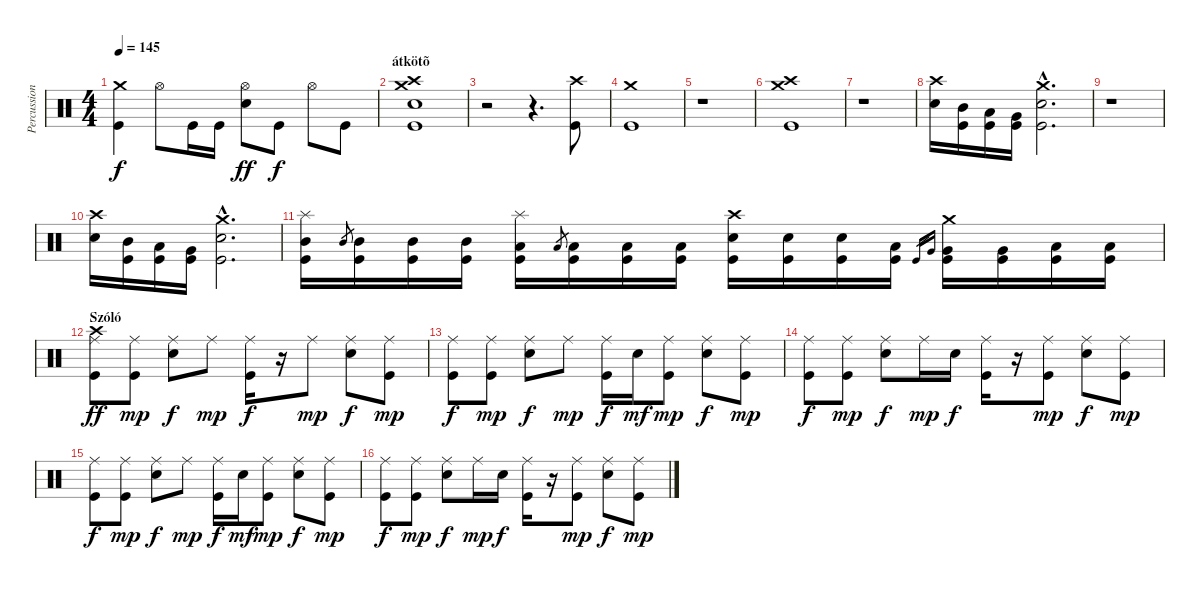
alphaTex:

\track ("Percussion" "Percussion") {instrument percussion}
\staff {score}
\articulation defaults
\ts (4 4)
\tempo 145
\clef neutral
\ks c
("Crash medium (hit)" "Kick (hit)").4{dy f} "Hi-Hat (open)".8 "Kick (hit)".16 "Kick (hit)".16 ("Hi-Hat (open)" "Snare (hit) 2").8{dy ff} "Kick (hit)".8{dy f} "Hi-Hat (open)".8 "Kick (hit)".8 |
\section ("" "átkötõ")
("Crash high (hit)" "Crash medium (hit)" "Kick (hit)" "Snare (hit) 2").1 |
r.2 r.4{d} ("Crash high (hit)" "Kick (hit)").8 |
("Crash medium (hit)" "Kick (hit)").1 |
r.1 |
("Crash medium (hit)" "Crash high (hit)" "Kick (hit)").1 |
r.1 |
("Crash high (hit)" "Snare (hit) 2").16 ("Kick (hit)" "Mid Tom (hit)").16 ("Kick (hit)" "Low Tom (hit)").16 ("Kick (hit)" "Very Low Tom (hit)").16 ("Crash medium (hit)"{hac} "Kick (hit)"{hac} "Snare (hit) 2"{hac}).2{d} |
r.1 |
("Crash high (hit)" "Snare (hit) 2").16 ("Kick (hit)" "Mid Tom (hit)").16 ("Kick (hit)" "Low Tom (hit)").16 ("Kick (hit)" "Very Low Tom (hit)").16 ("Crash medium (hit)"{hac} "Kick (hit)"{hac} "Snare (hit) 2"{hac}).2{d} |
("Splash (hit)" "Kick (hit)" "Mid Tom (hit)").16 "Mid Tom (hit)".8{gr} ("Kick (hit)" "Mid Tom (hit)").16 ("Kick (hit)" "Mid Tom (hit)").16 ("Kick (hit)" "Mid Tom (hit)").16 ("Splash (hit)" "Kick (hit)" "Low Tom (hit)").16 "Low Tom (hit)".8{gr} ("Kick (hit)" "Low Tom (hit)").16 ("Kick (hit)" "Low Tom (hit)").16 ("Kick (hit)" "Low Tom (hit)").16 ("Crash high (hit)" "Kick (hit)" "Snare (hit) 2").16 ("Kick (hit)" "Snare (hit) 2").16 ("Kick (hit)" "Snare (hit) 2").16 ("Kick (hit)" "Low Tom (hit)").16 "Kick (hit)".16{gr} "Very Low Tom (hit)".16{gr} ("Crash medium (hit)" "Kick (hit)" "Very Low Tom (hit)").16 ("Kick (hit)" "Very Low Tom (hit)").16 ("Kick (hit)" "Low Floor Tom (hit)").16 ("Kick (hit)" "Low Floor Tom (hit)").16 |
\section ("" "Szóló")
("Ride (middle)" "Kick (hit)" "Crash high (hit)").8{dy ff} ("Ride (middle)" "Kick (hit)").8{dy mp} ("Ride (middle)" "Snare (hit) 2").8{dy f} "Ride (middle)".8{dy mp} ("Ride (middle)" "Kick (hit)").16{dy f} r.16 "Ride (middle)".8{dy mp} ("Ride (middle)" "Snare (hit) 2").8{dy f} ("Ride (middle)" "Kick (hit)").8{dy mp} |
("Ride (middle)" "Kick (hit)").8{dy f} ("Ride (middle)" "Kick (hit)").8{dy mp} ("Ride (middle)" "Snare (hit) 2").8{dy f} "Ride (middle)".8{dy mp} ("Ride (middle)" "Kick (hit)").16{dy f} "Snare (hit) 2".16{dy mf} ("Ride (middle)" "Kick (hit)").8{dy mp} ("Ride (middle)" "Snare (hit) 2").8{dy f} ("Ride (middle)" "Kick (hit)").8{dy mp} |
("Ride (middle)" "Kick (hit)").8{dy f} ("Ride (middle)" "Kick (hit)").8{dy mp} ("Ride (middle)" "Snare (hit) 2").8{dy f} "Ride (middle)".16{dy mp} "Snare (hit) 2".16{dy f} ("Ride (middle)" "Kick (hit)").16 r.16 ("Ride (middle)" "Kick (hit)").8{dy mp} ("Ride (middle)" "Snare (hit) 2").8{dy f} ("Ride (middle)" "Kick (hit)").8{dy mp} |
("Ride (middle)" "Kick (hit)").8{dy f} ("Ride (middle)" "Kick (hit)").8{dy mp} ("Ride (middle)" "Snare (hit) 2").8{dy f} "Ride (middle)".8{dy mp} ("Ride (middle)" "Kick (hit)").16{dy f} "Snare (hit) 2".16{dy mf} ("Ride (middle)" "Kick (hit)").8{dy mp} ("Ride (middle)" "Snare (hit) 2").8{dy f} ("Ride (middle)" "Kick (hit)").8{dy mp} |
("Ride (middle)" "Kick (hit)").8{dy f} ("Ride (middle)" "Kick (hit)").8{dy mp} ("Ride (middle)" "Snare (hit) 2").8{dy f} "Ride (middle)".16{dy mp} "Snare (hit) 2".16{dy f} ("Ride (middle)" "Kick (hit)").16 r.16 ("Ride (middle)" "Kick (hit)").8{dy mp} ("Ride (middle)" "Snare (hit) 2").8{dy f} ("Ride (middle)" "Kick (hit)").8{dy mp}
